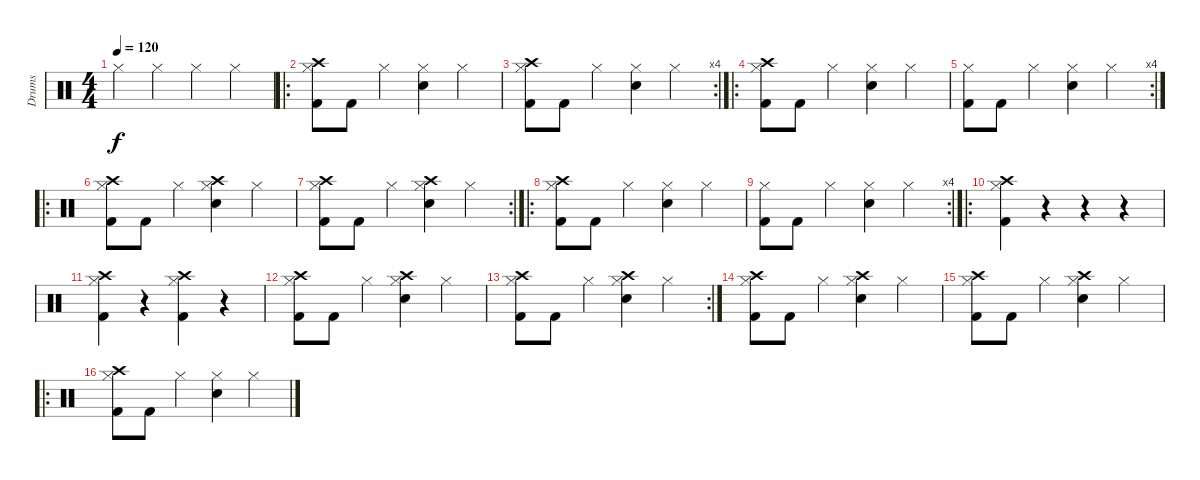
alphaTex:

\track ("Drums" "Drums") {instrument percussion}
\staff {score}
\articulation defaults
\ts (4 4)
\tempo 120
\clef neutral
\ks c "Hi-Hat (closed)".4{dy f} "Hi-Hat (closed)".4 "Hi-Hat (closed)".4 "Hi-Hat (closed)".4
|
\ro
("Kick (hit) 2" "Crash high (hit)" "Hi-Hat (closed)").8 "Kick (hit) 2".8 "Hi-Hat (closed)".4 ("Electric Snare (hit)" "Hi-Hat (closed)").4 "Hi-Hat (closed)".4 |
\rc 4
("Kick (hit) 2" "Crash high (hit)" "Hi-Hat (closed)").8 "Kick (hit) 2".8 "Hi-Hat (closed)".4 ("Electric Snare (hit)" "Hi-Hat (closed)").4 "Hi-Hat (closed)".4 |
\ro
("Crash high (hit)" "Kick (hit) 2" "Hi-Hat (closed)").8 "Kick (hit) 2".8 "Hi-Hat (closed)".4 ("Electric Snare (hit)" "Hi-Hat (closed)").4 "Hi-Hat (closed)".4 |
\rc 4
("Kick (hit) 2" "Hi-Hat (closed)").8 "Kick (hit) 2".8 "Hi-Hat (closed)".4 ("Electric Snare (hit)" "Hi-Hat (closed)").4 "Hi-Hat (closed)".4 |
\ro
("Crash high (hit)" "Kick (hit) 2" "Hi-Hat (closed)").8 "Kick (hit) 2".8 "Hi-Hat (closed)".4 ("Electric Snare (hit)" "Crash high (hit)" "Hi-Hat (closed)").4 "Hi-Hat (closed)".4 |
\rc 2
("Kick (hit) 2" "Crash high (hit)" "Hi-Hat (closed)").8 "Kick (hit) 2".8 "Hi-Hat (closed)".4 ("Electric Snare (hit)" "Crash high (hit)" "Hi-Hat (closed)").4 "Hi-Hat (closed)".4 |
\ro
("Crash high (hit)" "Kick (hit) 2" "Hi-Hat (closed)").8 "Kick (hit) 2".8 "Hi-Hat (closed)".4 ("Electric Snare (hit)" "Hi-Hat (closed)").4 "Hi-Hat (closed)".4 |
\rc 4
("Kick (hit) 2" "Hi-Hat (closed)").8 "Kick (hit) 2".8 "Hi-Hat (closed)".4 ("Electric Snare (hit)" "Hi-Hat (closed)").4 "Hi-Hat (closed)".4 |
\ro
("Kick (hit) 2" "Crash high (hit)" "Hi-Hat (closed)").4 r.4 r.4 r.4 |
("Kick (hit) 2" "Crash high (hit)" "Hi-Hat (closed)").4 r.4 ("Kick (hit) 2" "Crash high (hit)" "Hi-Hat (closed)").4 r.4 |
("Crash high (hit)" "Kick (hit) 2" "Hi-Hat (closed)").8 "Kick (hit) 2".8 "Hi-Hat (closed)".4 ("Electric Snare (hit)" "Crash high (hit)" "Hi-Hat (closed)").4 "Hi-Hat (closed)".4 |
\rc 2
("Kick (hit) 2" "Crash high (hit)" "Hi-Hat (closed)").8 "Kick (hit) 2".8 "Hi-Hat (closed)".4 ("Electric Snare (hit)" "Crash high (hit)" "Hi-Hat (closed)").4 "Hi-Hat (closed)".4 |
("Crash high (hit)" "Kick (hit) 2" "Hi-Hat (closed)").8 "Kick (hit) 2".8 "Hi-Hat (closed)".4 ("Electric Snare (hit)" "Crash high (hit)" "Hi-Hat (closed)").4 "Hi-Hat (closed)".4 |
("Kick (hit) 2" "Crash high (hit)" "Hi-Hat (closed)").8 "Kick (hit) 2".8 "Hi-Hat (closed)".4 ("Electric Snare (hit)" "Crash high (hit)" "Hi-Hat (closed)").4 "Hi-Hat (closed)".4 |
\ro
("Crash high (hit)" "Kick (hit) 2" "Hi-Hat (closed)").8 "Kick (hit) 2".8 "Hi-Hat (closed)".4 ("Electric Snare (hit)" "Hi-Hat (closed)").4 "Hi-Hat (closed)".4
